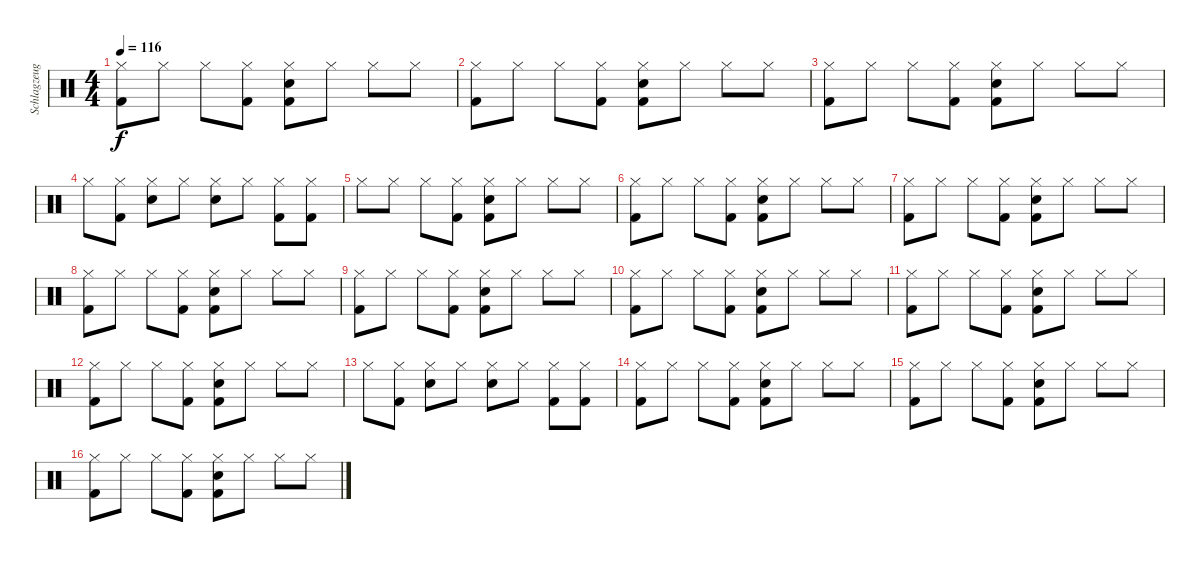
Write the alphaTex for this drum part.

\track ("Schlagzeug" "Schlagzeug") {instrument percussion}
\staff {score}
\articulation defaults
\ts (4 4)
\tempo 116
\clef neutral
\ks c
("Hi-Hat (closed)" "Kick (hit) 2").8{dy f} "Hi-Hat (closed)".8 "Hi-Hat (closed)".8 ("Hi-Hat (closed)" "Kick (hit) 2").8 ("Snare (hit) 2" "Hi-Hat (closed)" "Kick (hit) 2").8 "Hi-Hat (closed)".8 "Hi-Hat (closed)".8 "Hi-Hat (closed)".8 |
("Hi-Hat (closed)" "Kick (hit) 2").8 "Hi-Hat (closed)".8 "Hi-Hat (closed)".8 ("Hi-Hat (closed)" "Kick (hit) 2").8 ("Snare (hit) 2" "Hi-Hat (closed)" "Kick (hit) 2").8 "Hi-Hat (closed)".8 "Hi-Hat (closed)".8 "Hi-Hat (closed)".8 |
("Hi-Hat (closed)" "Kick (hit) 2").8 "Hi-Hat (closed)".8 "Hi-Hat (closed)".8 ("Hi-Hat (closed)" "Kick (hit) 2").8 ("Snare (hit) 2" "Hi-Hat (closed)" "Kick (hit) 2").8 "Hi-Hat (closed)".8 "Hi-Hat (closed)".8 "Hi-Hat (closed)".8 |
"Hi-Hat (closed)".8 ("Hi-Hat (closed)" "Kick (hit) 2").8 ("Snare (hit) 2" "Hi-Hat (closed)").8 "Hi-Hat (closed)".8 ("Snare (hit) 2" "Hi-Hat (closed)").8 "Hi-Hat (closed)".8 ("Hi-Hat (closed)" "Kick (hit) 2").8 ("Hi-Hat (closed)" "Kick (hit) 2").8 |
"Hi-Hat (closed)".8 "Hi-Hat (closed)".8 "Hi-Hat (closed)".8 ("Hi-Hat (closed)" "Kick (hit) 2").8 ("Snare (hit) 2" "Hi-Hat (closed)" "Kick (hit) 2").8 "Hi-Hat (closed)".8 "Hi-Hat (closed)".8 "Hi-Hat (closed)".8 |
("Hi-Hat (closed)" "Kick (hit) 2").8 "Hi-Hat (closed)".8 "Hi-Hat (closed)".8 ("Hi-Hat (closed)" "Kick (hit) 2").8 ("Snare (hit) 2" "Hi-Hat (closed)" "Kick (hit) 2").8 "Hi-Hat (closed)".8 "Hi-Hat (closed)".8 "Hi-Hat (closed)".8 |
("Hi-Hat (closed)" "Kick (hit) 2").8 "Hi-Hat (closed)".8 "Hi-Hat (closed)".8 ("Hi-Hat (closed)" "Kick (hit) 2").8 ("Snare (hit) 2" "Hi-Hat (closed)" "Kick (hit) 2").8 "Hi-Hat (closed)".8 "Hi-Hat (closed)".8 "Hi-Hat (closed)".8 |
("Hi-Hat (closed)" "Kick (hit) 2").8 "Hi-Hat (closed)".8 "Hi-Hat (closed)".8 ("Hi-Hat (closed)" "Kick (hit) 2").8 ("Snare (hit) 2" "Hi-Hat (closed)" "Kick (hit) 2").8 "Hi-Hat (closed)".8 "Hi-Hat (closed)".8 "Hi-Hat (closed)".8 |
("Hi-Hat (closed)" "Kick (hit) 2").8 "Hi-Hat (closed)".8 "Hi-Hat (closed)".8 ("Hi-Hat (closed)" "Kick (hit) 2").8 ("Snare (hit) 2" "Hi-Hat (closed)" "Kick (hit) 2").8 "Hi-Hat (closed)".8 "Hi-Hat (closed)".8 "Hi-Hat (closed)".8 |
("Hi-Hat (closed)" "Kick (hit) 2").8 "Hi-Hat (closed)".8 "Hi-Hat (closed)".8 ("Hi-Hat (closed)" "Kick (hit) 2").8 ("Snare (hit) 2" "Hi-Hat (closed)" "Kick (hit) 2").8 "Hi-Hat (closed)".8 "Hi-Hat (closed)".8 "Hi-Hat (closed)".8 |
("Hi-Hat (closed)" "Kick (hit) 2").8 "Hi-Hat (closed)".8 "Hi-Hat (closed)".8 ("Hi-Hat (closed)" "Kick (hit) 2").8 ("Snare (hit) 2" "Hi-Hat (closed)" "Kick (hit) 2").8 "Hi-Hat (closed)".8 "Hi-Hat (closed)".8 "Hi-Hat (closed)".8 |
("Hi-Hat (closed)" "Kick (hit) 2").8 "Hi-Hat (closed)".8 "Hi-Hat (closed)".8 ("Hi-Hat (closed)" "Kick (hit) 2").8 ("Snare (hit) 2" "Hi-Hat (closed)" "Kick (hit) 2").8 "Hi-Hat (closed)".8 "Hi-Hat (closed)".8 "Hi-Hat (closed)".8 |
"Hi-Hat (closed)".8 ("Hi-Hat (closed)" "Kick (hit) 2").8 ("Snare (hit) 2" "Hi-Hat (closed)").8 "Hi-Hat (closed)".8 ("Snare (hit) 2" "Hi-Hat (closed)").8 "Hi-Hat (closed)".8 ("Hi-Hat (closed)" "Kick (hit) 2").8 ("Hi-Hat (closed)" "Kick (hit) 2").8 |
("Hi-Hat (closed)" "Kick (hit) 2").8 "Hi-Hat (closed)".8 "Hi-Hat (closed)".8 ("Hi-Hat (closed)" "Kick (hit) 2").8 ("Snare (hit) 2" "Hi-Hat (closed)" "Kick (hit) 2").8 "Hi-Hat (closed)".8 "Hi-Hat (closed)".8 "Hi-Hat (closed)".8 |
("Hi-Hat (closed)" "Kick (hit) 2").8 "Hi-Hat (closed)".8 "Hi-Hat (closed)".8 ("Hi-Hat (closed)" "Kick (hit) 2").8 ("Snare (hit) 2" "Hi-Hat (closed)" "Kick (hit) 2").8 "Hi-Hat (closed)".8 "Hi-Hat (closed)".8 "Hi-Hat (closed)".8 |
("Hi-Hat (closed)" "Kick (hit) 2").8 "Hi-Hat (closed)".8 "Hi-Hat (closed)".8 ("Hi-Hat (closed)" "Kick (hit) 2").8 ("Snare (hit) 2" "Hi-Hat (closed)" "Kick (hit) 2").8 "Hi-Hat (closed)".8 "Hi-Hat (closed)".8 "Hi-Hat (closed)".8
